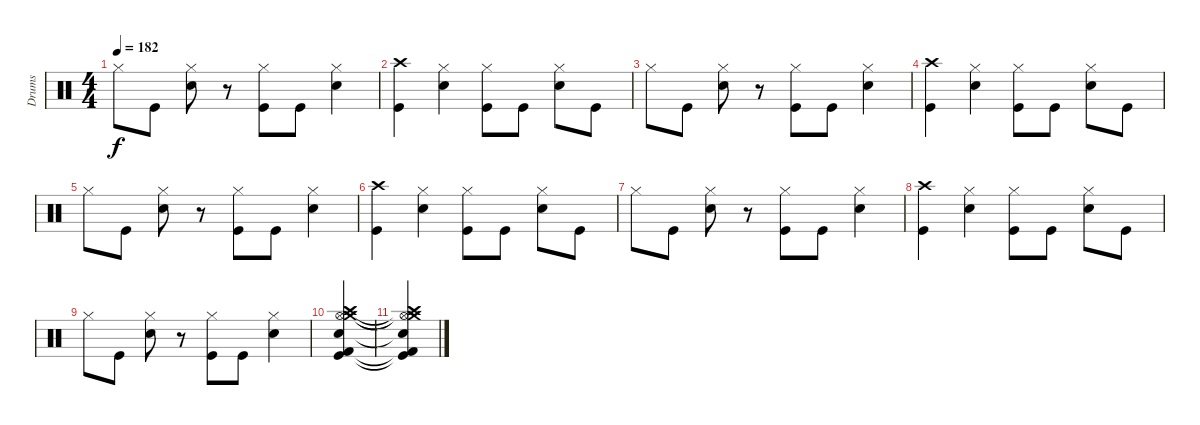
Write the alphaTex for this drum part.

\track ("Drums" "Drums") {instrument percussion}
\staff {score}
\articulation defaults
\ts (4 4)
\tempo 182
\clef neutral
\ks c "Hi-Hat (closed)".8{dy f} "Kick (hit)".8
("Hi-Hat (closed)" "Snare (hit) 2").8 r.8 ("Hi-Hat (closed)" "Kick (hit)").8 "Kick (hit)".8 ("Hi-Hat (closed)" "Snare (hit) 2").4 |
("Crash high (hit)" "Kick (hit)").4 ("Hi-Hat (closed)" "Snare (hit) 2").4 ("Hi-Hat (closed)" "Kick (hit)").8 "Kick (hit)".8 ("Hi-Hat (closed)" "Snare (hit) 2").8 "Kick (hit)".8 |
"Hi-Hat (closed)".8 "Kick (hit)".8 ("Hi-Hat (closed)" "Snare (hit) 2").8 r.8 ("Hi-Hat (closed)" "Kick (hit)").8 "Kick (hit)".8 ("Hi-Hat (closed)" "Snare (hit) 2").4 |
("Crash high (hit)" "Kick (hit)").4 ("Hi-Hat (closed)" "Snare (hit) 2").4 ("Hi-Hat (closed)" "Kick (hit)").8 "Kick (hit)".8 ("Hi-Hat (closed)" "Snare (hit) 2").8 "Kick (hit)".8 |
"Hi-Hat (closed)".8 "Kick (hit)".8 ("Hi-Hat (closed)" "Snare (hit) 2").8 r.8 ("Hi-Hat (closed)" "Kick (hit)").8 "Kick (hit)".8 ("Hi-Hat (closed)" "Snare (hit) 2").4 |
("Crash high (hit)" "Kick (hit)").4 ("Hi-Hat (closed)" "Snare (hit) 2").4 ("Hi-Hat (closed)" "Kick (hit)").8 "Kick (hit)".8 ("Hi-Hat (closed)" "Snare (hit) 2").8 "Kick (hit)".8 |
"Hi-Hat (closed)".8 "Kick (hit)".8 ("Hi-Hat (closed)" "Snare (hit) 2").8 r.8 ("Hi-Hat (closed)" "Kick (hit)").8 "Kick (hit)".8 ("Hi-Hat (closed)" "Snare (hit) 2").4 |
("Crash high (hit)" "Kick (hit)").4 ("Hi-Hat (closed)" "Snare (hit) 2").4 ("Hi-Hat (closed)" "Kick (hit)").8 "Kick (hit)".8 ("Hi-Hat (closed)" "Snare (hit) 2").8 "Kick (hit)".8 |
"Hi-Hat (closed)".8 "Kick (hit)".8 ("Hi-Hat (closed)" "Snare (hit) 2").8 r.8 ("Hi-Hat (closed)" "Kick (hit)").8 "Kick (hit)".8 ("Hi-Hat (closed)" "Snare (hit) 2").4 |
("Electric Snare (hit)" "Kick (hit)" "Hi-Hat (open)" "Crash medium (hit)" "Crash high (hit)" "Kick (hit) 2").4 |
("Electric Snare (hit)"{t} "Kick (hit)"{t} "Hi-Hat (open)"{t} "Crash medium (hit)"{t} "Crash high (hit)"{t} "Kick (hit) 2"{t}).4
